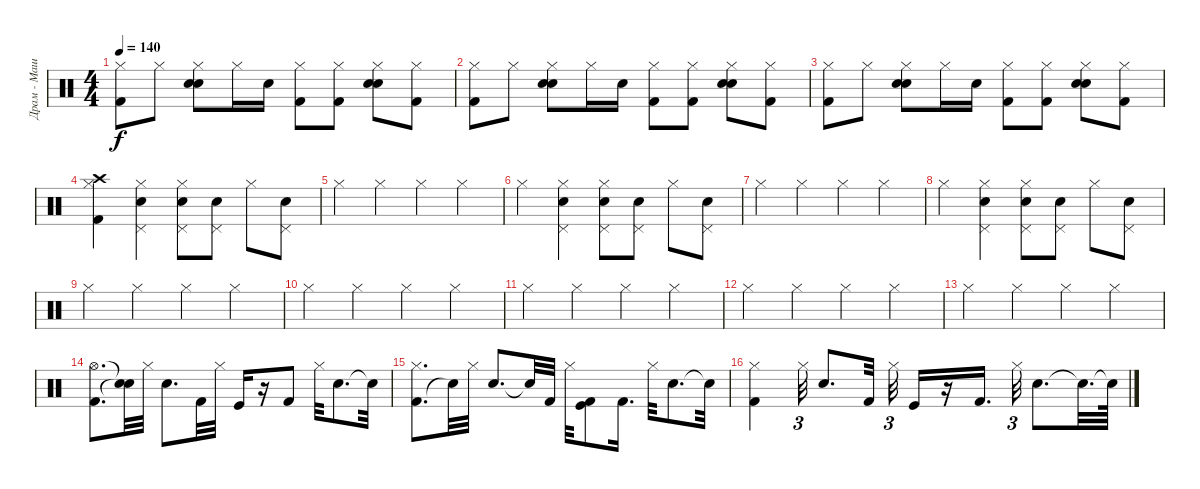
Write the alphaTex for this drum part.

\track ("Драм - Машина" "Драм - Маш") {instrument percussion}
\staff {score}
\articulation defaults
\ts (4 4)
\tempo 140
\clef neutral
\ks c
("Kick (hit) 2" "Hi-Hat (closed)").8{dy f} "Hi-Hat (closed)".8 ("Hand Clap (hit)" "Snare (hit) 2" "Hi-Hat (closed)").8 "Hi-Hat (closed)".16 "Snare (hit) 2".16 ("Kick (hit) 2" "Hi-Hat (closed)").8 ("Hi-Hat (closed)" "Kick (hit) 2").8 ("Hand Clap (hit)" "Snare (hit) 2" "Hi-Hat (closed)").8 ("Hi-Hat (closed)" "Kick (hit) 2").8 |
("Kick (hit) 2" "Hi-Hat (closed)").8 "Hi-Hat (closed)".8 ("Hand Clap (hit)" "Snare (hit) 2" "Hi-Hat (closed)").8 "Hi-Hat (closed)".16 "Snare (hit) 2".16 ("Kick (hit) 2" "Hi-Hat (closed)").8 ("Hi-Hat (closed)" "Kick (hit) 2").8 ("Hand Clap (hit)" "Snare (hit) 2" "Hi-Hat (closed)").8 ("Hi-Hat (closed)" "Kick (hit) 2").8 |
("Kick (hit) 2" "Hi-Hat (closed)").8 "Hi-Hat (closed)".8 ("Hand Clap (hit)" "Snare (hit) 2" "Hi-Hat (closed)").8 "Hi-Hat (closed)".16 "Snare (hit) 2".16 ("Kick (hit) 2" "Hi-Hat (closed)").8 ("Hi-Hat (closed)" "Kick (hit) 2").8 ("Hand Clap (hit)" "Snare (hit) 2" "Hi-Hat (closed)").8 ("Hi-Hat (closed)" "Kick (hit) 2").8 |
("Hi-Hat (closed)" "Crash high (hit)" "Kick (hit) 2").4 ("Hi-Hat (closed)" "Pedal Hi-Hat (hit)" "Snare (hit) 2").4 ("Hi-Hat (closed)" "Pedal Hi-Hat (hit)" "Snare (hit) 2").8 ("Pedal Hi-Hat (hit)" "Snare (hit) 2").8 "Hi-Hat (closed)".8 ("Pedal Hi-Hat (hit)" "Snare (hit) 2").8 |
"Hi-Hat (closed)".4 "Hi-Hat (closed)".4 "Hi-Hat (closed)".4 "Hi-Hat (closed)".4 |
"Hi-Hat (closed)".4 ("Hi-Hat (closed)" "Pedal Hi-Hat (hit)" "Snare (hit) 2").4 ("Hi-Hat (closed)" "Pedal Hi-Hat (hit)" "Snare (hit) 2").8 ("Pedal Hi-Hat (hit)" "Snare (hit) 2").8 "Hi-Hat (closed)".8 ("Pedal Hi-Hat (hit)" "Snare (hit) 2").8 |
"Hi-Hat (closed)".4 "Hi-Hat (closed)".4 "Hi-Hat (closed)".4 "Hi-Hat (closed)".4 |
"Hi-Hat (closed)".4 ("Hi-Hat (closed)" "Pedal Hi-Hat (hit)" "Snare (hit) 2").4 ("Hi-Hat (closed)" "Pedal Hi-Hat (hit)" "Snare (hit) 2").8 ("Pedal Hi-Hat (hit)" "Snare (hit) 2").8 "Hi-Hat (closed)".8 ("Pedal Hi-Hat (hit)" "Snare (hit) 2").8 |
"Hi-Hat (closed)".4 "Hi-Hat (closed)".4 "Hi-Hat (closed)".4 "Hi-Hat (closed)".4 |
"Hi-Hat (closed)".4 "Hi-Hat (closed)".4 "Hi-Hat (closed)".4 "Hi-Hat (closed)".4 |
"Hi-Hat (closed)".4 "Hi-Hat (closed)".4 "Hi-Hat (closed)".4 "Hi-Hat (closed)".4 |
"Hi-Hat (closed)".4 "Hi-Hat (closed)".4 "Hi-Hat (closed)".4 "Hi-Hat (closed)".4 |
"Hi-Hat (closed)".4 "Hi-Hat (closed)".4 "Hi-Hat (closed)".4 "Hi-Hat (closed)".4 |
("Hi-Hat (open)" "Kick (hit) 2").8{d} ("Snare (hit)"{t} "Snare (hit)"{t}).32 "Hi-Hat (closed)".32 "Electric Snare (hit)".8{d} "Kick (hit) 2".32 "Hi-Hat (closed)".32 "Kick (hit)".16 r.16 "Kick (hit) 2".8 "Hi-Hat (closed)".32 "Electric Snare (hit)".8{d} "Snare (hit)"{t}.32 |
("Kick (hit) 2" "Hi-Hat (closed)").8{d} "Snare (hit)"{t}.32 "Hi-Hat (closed)".32 "Electric Snare (hit)".8{d} "Snare (hit)"{t}.32 "Kick (hit) 2".32 "Hi-Hat (closed)".32 ("Kick (hit) 2" "Kick (hit)").8 "Kick (hit) 2".16{d} "Hi-Hat (closed)".32 "Electric Snare (hit)".8{d} "Snare (hit)"{t}.32 |
("Kick (hit) 2" "Hi-Hat (closed)").4 "Hi-Hat (closed)".32{tu (3 2)} "Electric Snare (hit)".8{d} "Kick (hit) 2".32 "Hi-Hat (closed)".32{tu (3 2)} "Kick (hit)".16 r.16 "Kick (hit) 2".16{d} "Hi-Hat (closed)".32{tu (3 2)} "Electric Snare (hit)".8{d} "Snare (hit)"{t}.32{d} "Snare (hit)"{t}.64
